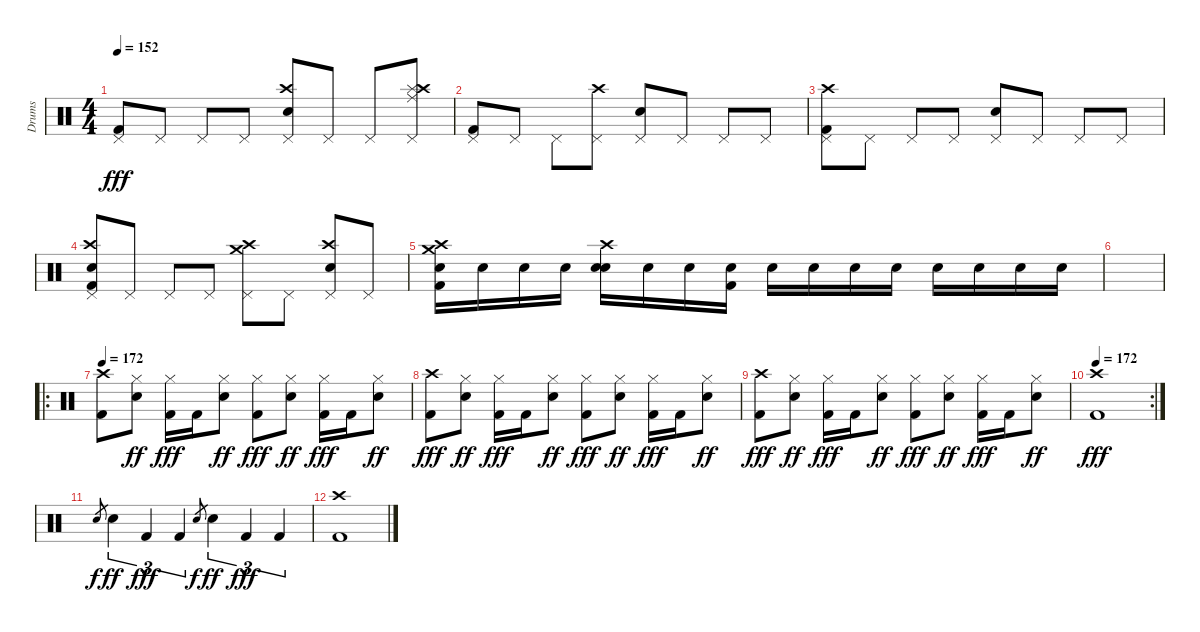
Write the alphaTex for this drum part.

\track ("Drums" "Drums") {instrument percussion}
\staff {score}
\articulation defaults
\ts (4 4)
\tempo 152
\clef neutral
\ks c
("Pedal Hi-Hat (hit)" "Kick (hit) 2").8{dy fff} "Pedal Hi-Hat (hit)".8 "Pedal Hi-Hat (hit)".8 "Pedal Hi-Hat (hit)".8 ("Crash high (hit)" "Pedal Hi-Hat (hit)" "Snare (hit) 2").8 "Pedal Hi-Hat (hit)".8 "Pedal Hi-Hat (hit)".8 ("Splash (hit)" "Crash high (hit)" "Ride (middle)" "Pedal Hi-Hat (hit)").8 |
("Pedal Hi-Hat (hit)" "Kick (hit) 2").8 "Pedal Hi-Hat (hit)".8 "Pedal Hi-Hat (hit)".8 ("Crash high (hit)" "Pedal Hi-Hat (hit)").8 ("Pedal Hi-Hat (hit)" "Snare (hit) 2").8 "Pedal Hi-Hat (hit)".8 "Pedal Hi-Hat (hit)".8 "Pedal Hi-Hat (hit)".8 |
("Crash high (hit)" "Pedal Hi-Hat (hit)" "Kick (hit) 2").8 "Pedal Hi-Hat (hit)".8 "Pedal Hi-Hat (hit)".8 "Pedal Hi-Hat (hit)".8 ("Pedal Hi-Hat (hit)" "Snare (hit) 2").8 "Pedal Hi-Hat (hit)".8 "Pedal Hi-Hat (hit)".8 "Pedal Hi-Hat (hit)".8 |
("Crash high (hit)" "Pedal Hi-Hat (hit)" "Snare (hit) 2" "Kick (hit) 2").8 "Pedal Hi-Hat (hit)".8 "Pedal Hi-Hat (hit)".8 "Pedal Hi-Hat (hit)".8 ("Crash medium (hit)" "Crash high (hit)" "Pedal Hi-Hat (hit)").8 "Pedal Hi-Hat (hit)".8 ("Crash high (hit)" "Pedal Hi-Hat (hit)" "Snare (hit) 2").8 "Pedal Hi-Hat (hit)".8 |
("Crash medium (hit)" "Crash high (hit)" "Snare (hit) 2" "Kick (hit) 2").16 "Snare (hit) 2".16 "Snare (hit) 2".16 "Snare (hit) 2".16 ("Crash high (hit)" "Snare (hit) 2" "Snare (hit) 2").16 "Snare (hit) 2".16 "Snare (hit) 2".16 ("Snare (hit) 2" "Kick (hit) 2").16 "Snare (hit) 2".16 "Snare (hit) 2".16 "Snare (hit) 2".16 "Snare (hit) 2".16 "Snare (hit) 2".16 "Snare (hit) 2".16 "Snare (hit) 2".16 "Snare (hit) 2".16 |
|
\ro
\tempo 172
("Crash high (hit)" "Kick (hit) 2").8 ("Hi-Hat (closed)" "Snare (hit) 2").8{dy ff} ("Hi-Hat (closed)" "Kick (hit) 2").16{dy fff} "Kick (hit) 2".16 ("Hi-Hat (closed)" "Snare (hit) 2").8{dy ff} ("Hi-Hat (closed)" "Kick (hit) 2").8{dy fff} ("Hi-Hat (closed)" "Snare (hit) 2").8{dy ff} ("Hi-Hat (closed)" "Kick (hit) 2").16{dy fff} "Kick (hit) 2".16 ("Hi-Hat (closed)" "Snare (hit) 2").8{dy ff} |
("Crash high (hit)" "Kick (hit) 2").8{dy fff} ("Hi-Hat (closed)" "Snare (hit) 2").8{dy ff} ("Hi-Hat (closed)" "Kick (hit) 2").16{dy fff} "Kick (hit) 2".16 ("Hi-Hat (closed)" "Snare (hit) 2").8{dy ff} ("Hi-Hat (closed)" "Kick (hit) 2").8{dy fff} ("Hi-Hat (closed)" "Snare (hit) 2").8{dy ff} ("Hi-Hat (closed)" "Kick (hit) 2").16{dy fff} "Kick (hit) 2".16 ("Hi-Hat (closed)" "Snare (hit) 2").8{dy ff} |
("Crash high (hit)" "Kick (hit) 2").8{dy fff} ("Hi-Hat (closed)" "Snare (hit) 2").8{dy ff} ("Hi-Hat (closed)" "Kick (hit) 2").16{dy fff} "Kick (hit) 2".16 ("Hi-Hat (closed)" "Snare (hit) 2").8{dy ff} ("Hi-Hat (closed)" "Kick (hit) 2").8{dy fff} ("Hi-Hat (closed)" "Snare (hit) 2").8{dy ff} ("Hi-Hat (closed)" "Kick (hit) 2").16{dy fff} "Kick (hit) 2".16 ("Hi-Hat (closed)" "Snare (hit) 2").8{dy ff} |
\rc 2
\tempo 172
("Crash high (hit)" "Kick (hit) 2").1{dy fff} |
"Snare (hit) 2".8{gr dy f} "Snare (hit) 2".4{tu (3 2) dy ff} "Kick (hit) 2".4{tu (3 2) dy fff} "Kick (hit) 2".4{tu (3 2)} "Snare (hit) 2".8{gr dy f} "Snare (hit) 2".4{tu (3 2) dy ff} "Kick (hit) 2".4{tu (3 2) dy fff} "Kick (hit) 2".4{tu (3 2)} |
("Crash high (hit)" "Kick (hit) 2").1
